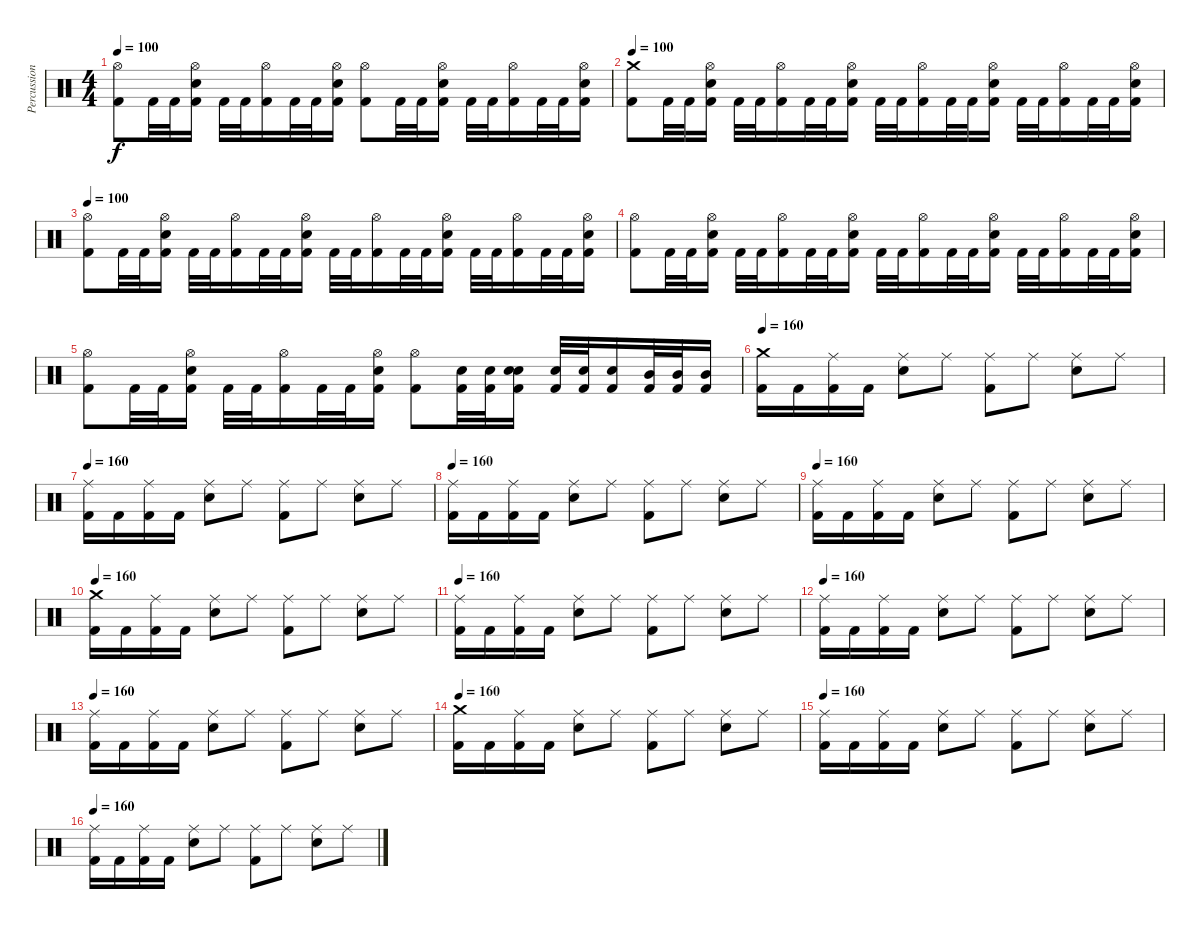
\track ("Percussions" "Percussion") {instrument percussion}
\staff {score}
\articulation defaults
\ts (4 4)
\tempo 100
\clef neutral
\ks c
("Kick (hit) 2" "Hi-Hat (open)").8{dy f} "Kick (hit) 2".32 "Kick (hit) 2".32 ("Kick (hit) 2" "Electric Snare (hit)" "Hi-Hat (open)").16 "Kick (hit) 2".32 "Kick (hit) 2".32 ("Kick (hit) 2" "Hi-Hat (open)").16 "Kick (hit) 2".32 "Kick (hit) 2".32 ("Kick (hit) 2" "Electric Snare (hit)" "Hi-Hat (open)").16 ("Kick (hit) 2" "Hi-Hat (open)").8 "Kick (hit) 2".32 "Kick (hit) 2".32 ("Kick (hit) 2" "Electric Snare (hit)" "Hi-Hat (open)").16 "Kick (hit) 2".32 "Kick (hit) 2".32 ("Kick (hit) 2" "Hi-Hat (open)").16 "Kick (hit) 2".32 "Kick (hit) 2".32 ("Kick (hit) 2" "Electric Snare (hit)" "Hi-Hat (open)").16 |
\tempo 100
("Kick (hit) 2" "Crash medium (hit)").8 "Kick (hit) 2".32 "Kick (hit) 2".32 ("Kick (hit) 2" "Electric Snare (hit)" "Hi-Hat (open)").16 "Kick (hit) 2".32 "Kick (hit) 2".32 ("Kick (hit) 2" "Hi-Hat (open)").16 "Kick (hit) 2".32 "Kick (hit) 2".32 ("Kick (hit) 2" "Electric Snare (hit)" "Hi-Hat (open)").16 "Kick (hit) 2".32 "Kick (hit) 2".32 ("Kick (hit) 2" "Hi-Hat (open)").16 "Kick (hit) 2".32 "Kick (hit) 2".32 ("Kick (hit) 2" "Electric Snare (hit)" "Hi-Hat (open)").16 "Kick (hit) 2".32 "Kick (hit) 2".32 ("Kick (hit) 2" "Hi-Hat (open)").16 "Kick (hit) 2".32 "Kick (hit) 2".32 ("Kick (hit) 2" "Electric Snare (hit)" "Hi-Hat (open)").16 |
\tempo 100
("Kick (hit) 2" "Hi-Hat (open)").8 "Kick (hit) 2".32 "Kick (hit) 2".32 ("Kick (hit) 2" "Electric Snare (hit)" "Hi-Hat (open)").16 "Kick (hit) 2".32 "Kick (hit) 2".32 ("Kick (hit) 2" "Hi-Hat (open)").16 "Kick (hit) 2".32 "Kick (hit) 2".32 ("Kick (hit) 2" "Electric Snare (hit)" "Hi-Hat (open)").16 "Kick (hit) 2".32 "Kick (hit) 2".32 ("Kick (hit) 2" "Hi-Hat (open)").16 "Kick (hit) 2".32 "Kick (hit) 2".32 ("Kick (hit) 2" "Electric Snare (hit)" "Hi-Hat (open)").16 "Kick (hit) 2".32 "Kick (hit) 2".32 ("Kick (hit) 2" "Hi-Hat (open)").16 "Kick (hit) 2".32 "Kick (hit) 2".32 ("Kick (hit) 2" "Electric Snare (hit)" "Hi-Hat (open)").16 |
("Kick (hit) 2" "Hi-Hat (open)").8 "Kick (hit) 2".32 "Kick (hit) 2".32 ("Kick (hit) 2" "Electric Snare (hit)" "Hi-Hat (open)").16 "Kick (hit) 2".32 "Kick (hit) 2".32 ("Kick (hit) 2" "Hi-Hat (open)").16 "Kick (hit) 2".32 "Kick (hit) 2".32 ("Kick (hit) 2" "Electric Snare (hit)" "Hi-Hat (open)").16 "Kick (hit) 2".32 "Kick (hit) 2".32 ("Kick (hit) 2" "Hi-Hat (open)").16 "Kick (hit) 2".32 "Kick (hit) 2".32 ("Kick (hit) 2" "Electric Snare (hit)" "Hi-Hat (open)").16 "Kick (hit) 2".32 "Kick (hit) 2".32 ("Kick (hit) 2" "Hi-Hat (open)").16 "Kick (hit) 2".32 "Kick (hit) 2".32 ("Kick (hit) 2" "Electric Snare (hit)" "Hi-Hat (open)").16 |
("Kick (hit) 2" "Hi-Hat (open)").8 "Kick (hit) 2".32 "Kick (hit) 2".32 ("Kick (hit) 2" "Electric Snare (hit)" "Hi-Hat (open)").16 "Kick (hit) 2".32 "Kick (hit) 2".32 ("Kick (hit) 2" "Hi-Hat (open)").16 "Kick (hit) 2".32 "Kick (hit) 2".32 ("Kick (hit) 2" "Electric Snare (hit)" "Hi-Hat (open)").16 ("Kick (hit) 2" "Hi-Hat (open)").8 ("Kick (hit) 2" "Electric Snare (hit)").32 ("Kick (hit) 2" "Electric Snare (hit)").32 ("Kick (hit) 2" "Electric Snare (hit)" "Electric Snare (hit)").16 ("Kick (hit) 2" "Snare (hit) 2").32 ("Kick (hit) 2" "Snare (hit) 2").32 ("Kick (hit) 2" "Snare (hit) 2").16 ("Kick (hit) 2" "Mid Tom (hit)").32 ("Kick (hit) 2" "Mid Tom (hit)").32 ("Kick (hit) 2" "Mid Tom (hit)").16 |
\tempo 160
("Kick (hit) 2" "Crash medium (hit)").16 "Kick (hit) 2".16 ("Kick (hit) 2" "Ride (middle)").16 "Kick (hit) 2".16 ("Electric Snare (hit)" "Ride (middle)").8 "Ride (middle)".8 ("Kick (hit) 2" "Ride (middle)").8 "Ride (middle)".8 ("Electric Snare (hit)" "Ride (middle)").8 "Ride (middle)".8 |
\tempo 160
("Kick (hit) 2" "Ride (middle)").16 "Kick (hit) 2".16 ("Kick (hit) 2" "Ride (middle)").16 "Kick (hit) 2".16 ("Electric Snare (hit)" "Ride (middle)").8 "Ride (middle)".8 ("Kick (hit) 2" "Ride (middle)").8 "Ride (middle)".8 ("Electric Snare (hit)" "Ride (middle)").8 "Ride (middle)".8 |
\tempo 160
("Kick (hit) 2" "Ride (middle)").16 "Kick (hit) 2".16 ("Kick (hit) 2" "Ride (middle)").16 "Kick (hit) 2".16 ("Electric Snare (hit)" "Ride (middle)").8 "Ride (middle)".8 ("Kick (hit) 2" "Ride (middle)").8 "Ride (middle)".8 ("Electric Snare (hit)" "Ride (middle)").8 "Ride (middle)".8 |
\tempo 160
("Kick (hit) 2" "Ride (middle)").16 "Kick (hit) 2".16 ("Kick (hit) 2" "Ride (middle)").16 "Kick (hit) 2".16 ("Electric Snare (hit)" "Ride (middle)").8 "Ride (middle)".8 ("Kick (hit) 2" "Ride (middle)").8 "Ride (middle)".8 ("Electric Snare (hit)" "Ride (middle)").8 "Ride (middle)".8 |
\tempo 160
("Kick (hit) 2" "Crash medium (hit)").16 "Kick (hit) 2".16 ("Kick (hit) 2" "Ride (middle)").16 "Kick (hit) 2".16 ("Electric Snare (hit)" "Ride (middle)").8 "Ride (middle)".8 ("Kick (hit) 2" "Ride (middle)").8 "Ride (middle)".8 ("Electric Snare (hit)" "Ride (middle)").8 "Ride (middle)".8 |
\tempo 160
("Kick (hit) 2" "Ride (middle)").16 "Kick (hit) 2".16 ("Kick (hit) 2" "Ride (middle)").16 "Kick (hit) 2".16 ("Electric Snare (hit)" "Ride (middle)").8 "Ride (middle)".8 ("Kick (hit) 2" "Ride (middle)").8 "Ride (middle)".8 ("Electric Snare (hit)" "Ride (middle)").8 "Ride (middle)".8 |
\tempo 160
("Kick (hit) 2" "Ride (middle)").16 "Kick (hit) 2".16 ("Kick (hit) 2" "Ride (middle)").16 "Kick (hit) 2".16 ("Electric Snare (hit)" "Ride (middle)").8 "Ride (middle)".8 ("Kick (hit) 2" "Ride (middle)").8 "Ride (middle)".8 ("Electric Snare (hit)" "Ride (middle)").8 "Ride (middle)".8 |
\tempo 160
("Kick (hit) 2" "Ride (middle)").16 "Kick (hit) 2".16 ("Kick (hit) 2" "Ride (middle)").16 "Kick (hit) 2".16 ("Electric Snare (hit)" "Ride (middle)").8 "Ride (middle)".8 ("Kick (hit) 2" "Ride (middle)").8 "Ride (middle)".8 ("Electric Snare (hit)" "Ride (middle)").8 "Ride (middle)".8 |
\tempo 160
("Kick (hit) 2" "Crash medium (hit)").16 "Kick (hit) 2".16 ("Kick (hit) 2" "Ride (middle)").16 "Kick (hit) 2".16 ("Electric Snare (hit)" "Ride (middle)").8 "Ride (middle)".8 ("Kick (hit) 2" "Ride (middle)").8 "Ride (middle)".8 ("Electric Snare (hit)" "Ride (middle)").8 "Ride (middle)".8 |
\tempo 160
("Kick (hit) 2" "Ride (middle)").16 "Kick (hit) 2".16 ("Kick (hit) 2" "Ride (middle)").16 "Kick (hit) 2".16 ("Electric Snare (hit)" "Ride (middle)").8 "Ride (middle)".8 ("Kick (hit) 2" "Ride (middle)").8 "Ride (middle)".8 ("Electric Snare (hit)" "Ride (middle)").8 "Ride (middle)".8 |
\tempo 160
("Kick (hit) 2" "Ride (middle)").16 "Kick (hit) 2".16 ("Kick (hit) 2" "Ride (middle)").16 "Kick (hit) 2".16 ("Electric Snare (hit)" "Ride (middle)").8 "Ride (middle)".8 ("Kick (hit) 2" "Ride (middle)").8 "Ride (middle)".8 ("Electric Snare (hit)" "Ride (middle)").8 "Ride (middle)".8
